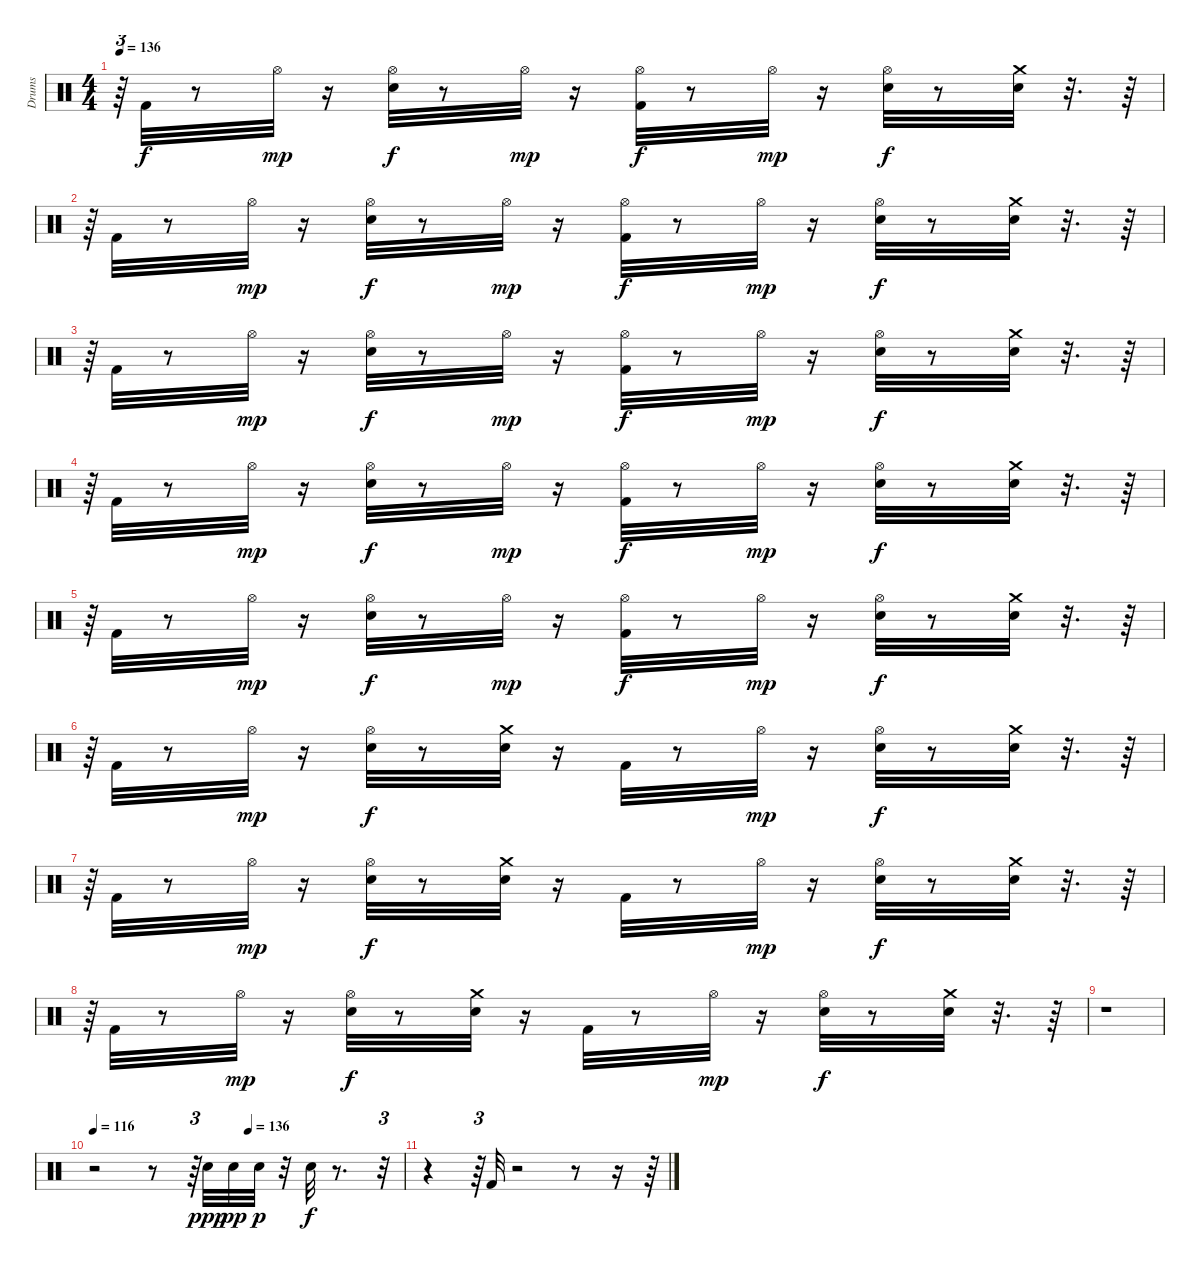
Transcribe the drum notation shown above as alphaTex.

\track ("Drums" "Drums") {instrument percussion}
\staff {score}
\articulation defaults
\ts (4 4)
\tempo 136
\clef neutral
\ks c
r.64{tu (3 2) dy f} "Kick (hit) 2".32 r.8 "Hi-Hat (open)".32{dy mp} r.16 ("Hi-Hat (open)" "Electric Snare (hit)").32{dy f} r.8 "Hi-Hat (open)".32{dy mp} r.16 ("Hi-Hat (open)" "Kick (hit) 2").32{dy f} r.8 "Hi-Hat (open)".32{dy mp} r.16 ("Hi-Hat (open)" "Electric Snare (hit)").32{dy f} r.8 ("Crash medium (hit)" "Electric Snare (hit)").32 r.32{d} r.64 |
r.64{tu (3 2)} "Kick (hit) 2".32 r.8 "Hi-Hat (open)".32{dy mp} r.16 ("Hi-Hat (open)" "Electric Snare (hit)").32{dy f} r.8 "Hi-Hat (open)".32{dy mp} r.16 ("Hi-Hat (open)" "Kick (hit) 2").32{dy f} r.8 "Hi-Hat (open)".32{dy mp} r.16 ("Hi-Hat (open)" "Electric Snare (hit)").32{dy f} r.8 ("Crash medium (hit)" "Electric Snare (hit)").32 r.32{d} r.64 |
r.64{tu (3 2)} "Kick (hit) 2".32 r.8 "Hi-Hat (open)".32{dy mp} r.16 ("Hi-Hat (open)" "Electric Snare (hit)").32{dy f} r.8 "Hi-Hat (open)".32{dy mp} r.16 ("Hi-Hat (open)" "Kick (hit) 2").32{dy f} r.8 "Hi-Hat (open)".32{dy mp} r.16 ("Hi-Hat (open)" "Electric Snare (hit)").32{dy f} r.8 ("Crash medium (hit)" "Electric Snare (hit)").32 r.32{d} r.64 |
r.64{tu (3 2)} "Kick (hit) 2".32 r.8 "Hi-Hat (open)".32{dy mp} r.16 ("Hi-Hat (open)" "Electric Snare (hit)").32{dy f} r.8 "Hi-Hat (open)".32{dy mp} r.16 ("Hi-Hat (open)" "Kick (hit) 2").32{dy f} r.8 "Hi-Hat (open)".32{dy mp} r.16 ("Hi-Hat (open)" "Electric Snare (hit)").32{dy f} r.8 ("Crash medium (hit)" "Electric Snare (hit)").32 r.32{d} r.64 |
r.64{tu (3 2)} "Kick (hit) 2".32 r.8 "Hi-Hat (open)".32{dy mp} r.16 ("Hi-Hat (open)" "Electric Snare (hit)").32{dy f} r.8 "Hi-Hat (open)".32{dy mp} r.16 ("Hi-Hat (open)" "Kick (hit) 2").32{dy f} r.8 "Hi-Hat (open)".32{dy mp} r.16 ("Hi-Hat (open)" "Electric Snare (hit)").32{dy f} r.8 ("Crash medium (hit)" "Electric Snare (hit)").32 r.32{d} r.64 |
r.64{tu (3 2)} "Kick (hit) 2".32 r.8 "Hi-Hat (open)".32{dy mp} r.16 ("Hi-Hat (open)" "Electric Snare (hit)").32{dy f} r.8 ("Crash medium (hit)" "Electric Snare (hit)").32 r.16 "Kick (hit) 2".32 r.8 "Hi-Hat (open)".32{dy mp} r.16 ("Hi-Hat (open)" "Electric Snare (hit)").32{dy f} r.8 ("Crash medium (hit)" "Electric Snare (hit)").32 r.32{d} r.64 |
r.64{tu (3 2)} "Kick (hit) 2".32 r.8 "Hi-Hat (open)".32{dy mp} r.16 ("Hi-Hat (open)" "Electric Snare (hit)").32{dy f} r.8 ("Crash medium (hit)" "Electric Snare (hit)").32 r.16 "Kick (hit) 2".32 r.8 "Hi-Hat (open)".32{dy mp} r.16 ("Hi-Hat (open)" "Electric Snare (hit)").32{dy f} r.8 ("Crash medium (hit)" "Electric Snare (hit)").32 r.32{d} r.64 |
r.64{tu (3 2)} "Kick (hit) 2".32 r.8 "Hi-Hat (open)".32{dy mp} r.16 ("Hi-Hat (open)" "Electric Snare (hit)").32{dy f} r.8 ("Crash medium (hit)" "Electric Snare (hit)").32 r.16 "Kick (hit) 2".32 r.8 "Hi-Hat (open)".32{dy mp} r.16 ("Hi-Hat (open)" "Electric Snare (hit)").32{dy f} r.8 ("Crash medium (hit)" "Electric Snare (hit)").32 r.32{d} r.64 |
r.1 |
\tempo 116
\tempo (136 0.5)
r.2 r.8 r.64{tu (3 2)} "Electric Snare (hit)".32{dy ppp} "Electric Snare (hit)".32{dy pp} "Electric Snare (hit)".32{dy p} r.32 "Electric Snare (hit)".32{dy f} r.8{d} r.32{tu (3 2)} |
r.4 r.64{tu (3 2)} "Kick (hit) 2".32 r.2 r.8 r.16 r.64
